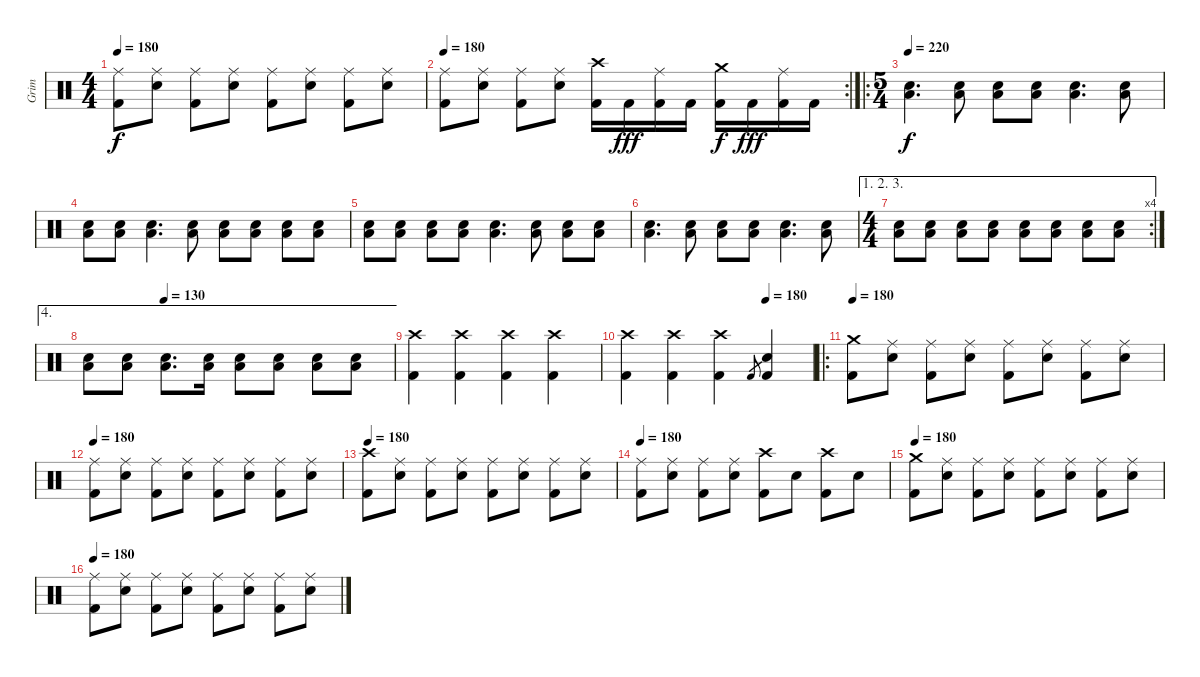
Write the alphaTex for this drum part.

\track ("Grim" "Grim") {instrument percussion}
\staff {score}
\articulation defaults
\ts (4 4)
\tempo 180
\clef neutral
\ks c
("Ride (middle)" "Kick (hit) 2").8{dy f} ("Ride (middle)" "Electric Snare (hit)").8 ("Ride (middle)" "Kick (hit) 2").8 ("Ride (middle)" "Electric Snare (hit)").8 ("Ride (middle)" "Kick (hit) 2").8 ("Ride (middle)" "Electric Snare (hit)").8 ("Ride (middle)" "Kick (hit) 2").8 ("Ride (middle)" "Electric Snare (hit)").8 |
\rc 2
\tempo 180
("Ride (middle)" "Kick (hit) 2").8 ("Ride (middle)" "Electric Snare (hit)").8 ("Ride (middle)" "Kick (hit) 2").8 ("Ride (middle)" "Electric Snare (hit)").8 ("Crash high (hit)" "Kick (hit) 2").16 "Kick (hit) 2".16{dy fff} ("Ride (middle)" "Kick (hit) 2").16 "Kick (hit) 2".16 ("Crash medium (hit)" "Kick (hit) 2").16{dy f} "Kick (hit) 2".16{dy fff} ("Ride (middle)" "Kick (hit) 2").16 "Kick (hit) 2".16 |
\ro
\ts (5 4)
\tempo 220
("Electric Snare (hit)" "Low Tom (hit)").4{d dy f} ("Electric Snare (hit)" "Low Tom (hit)").8 ("Electric Snare (hit)" "Low Tom (hit)").8 ("Electric Snare (hit)" "Low Tom (hit)").8 ("Electric Snare (hit)" "Low Tom (hit)").4{d} ("Electric Snare (hit)" "Low Tom (hit)").8 |
("Electric Snare (hit)" "Low Tom (hit)").8 ("Electric Snare (hit)" "Low Tom (hit)").8 ("Electric Snare (hit)" "Low Tom (hit)").4{d} ("Electric Snare (hit)" "Low Tom (hit)").8 ("Electric Snare (hit)" "Low Tom (hit)").8 ("Electric Snare (hit)" "Low Tom (hit)").8 ("Electric Snare (hit)" "Low Tom (hit)").8 ("Electric Snare (hit)" "Low Tom (hit)").8 |
("Electric Snare (hit)" "Low Tom (hit)").8 ("Electric Snare (hit)" "Low Tom (hit)").8 ("Electric Snare (hit)" "Low Tom (hit)").8 ("Electric Snare (hit)" "Low Tom (hit)").8 ("Electric Snare (hit)" "Low Tom (hit)").4{d} ("Electric Snare (hit)" "Low Tom (hit)").8 ("Electric Snare (hit)" "Low Tom (hit)").8 ("Electric Snare (hit)" "Low Tom (hit)").8 |
("Electric Snare (hit)" "Low Tom (hit)").4{d} ("Electric Snare (hit)" "Low Tom (hit)").8 ("Electric Snare (hit)" "Low Tom (hit)").8 ("Electric Snare (hit)" "Low Tom (hit)").8 ("Electric Snare (hit)" "Low Tom (hit)").4{d} ("Electric Snare (hit)" "Low Tom (hit)").8 |
\ae (1 2 3)
\rc 4
\ts (4 4)
("Electric Snare (hit)" "Low Tom (hit)").8 ("Electric Snare (hit)" "Low Tom (hit)").8 ("Electric Snare (hit)" "Low Tom (hit)").8 ("Electric Snare (hit)" "Low Tom (hit)").8 ("Electric Snare (hit)" "Low Tom (hit)").8 ("Electric Snare (hit)" "Low Tom (hit)").8 ("Electric Snare (hit)" "Low Tom (hit)").8 ("Electric Snare (hit)" "Low Tom (hit)").8 |
\ae 4
\tempo (130 0.25)
("Electric Snare (hit)" "Low Tom (hit)").8 ("Electric Snare (hit)" "Low Tom (hit)").8 ("Electric Snare (hit)" "Low Tom (hit)").8{d} ("Electric Snare (hit)" "Low Tom (hit)").16 ("Electric Snare (hit)" "Low Tom (hit)").8 ("Electric Snare (hit)" "Low Tom (hit)").8 ("Electric Snare (hit)" "Low Tom (hit)").8 ("Electric Snare (hit)" "Low Tom (hit)").8 |
("Crash high (hit)" "Kick (hit) 2").4 ("Crash high (hit)" "Kick (hit) 2").4 ("Crash high (hit)" "Kick (hit) 2").4 ("Crash high (hit)" "Kick (hit) 2").4 |
\tempo (180 0.75)
("Crash high (hit)" "Kick (hit) 2").4 ("Crash high (hit)" "Kick (hit) 2").4 ("Crash high (hit)" "Kick (hit) 2").4 "Kick (hit) 2".8{gr} ("Electric Snare (hit)" "Kick (hit) 2").4 |
\ro
\tempo 180
("Crash medium (hit)" "Kick (hit) 2").8 ("Ride (middle)" "Electric Snare (hit)").8 ("Ride (middle)" "Kick (hit) 2").8 ("Ride (middle)" "Electric Snare (hit)").8 ("Ride (middle)" "Kick (hit) 2").8 ("Ride (middle)" "Electric Snare (hit)").8 ("Ride (middle)" "Kick (hit) 2").8 ("Ride (middle)" "Electric Snare (hit)").8 |
\tempo 180
("Ride (middle)" "Kick (hit) 2").8 ("Ride (middle)" "Electric Snare (hit)").8 ("Ride (middle)" "Kick (hit) 2").8 ("Ride (middle)" "Electric Snare (hit)").8 ("Ride (middle)" "Kick (hit) 2").8 ("Ride (middle)" "Electric Snare (hit)").8 ("Ride (middle)" "Kick (hit) 2").8 ("Ride (middle)" "Electric Snare (hit)").8 |
\tempo 180
("Crash high (hit)" "Kick (hit) 2").8 ("Ride (middle)" "Electric Snare (hit)").8 ("Ride (middle)" "Kick (hit) 2").8 ("Ride (middle)" "Electric Snare (hit)").8 ("Ride (middle)" "Kick (hit) 2").8 ("Ride (middle)" "Electric Snare (hit)").8 ("Ride (middle)" "Kick (hit) 2").8 ("Ride (middle)" "Electric Snare (hit)").8 |
\tempo 180
("Ride (middle)" "Kick (hit) 2").8 ("Ride (middle)" "Electric Snare (hit)").8 ("Ride (middle)" "Kick (hit) 2").8 ("Ride (middle)" "Electric Snare (hit)").8 ("Crash high (hit)" "Kick (hit) 2").8 "Electric Snare (hit)".8 ("Crash high (hit)" "Kick (hit) 2").8 "Electric Snare (hit)".8 |
\tempo 180
("Crash medium (hit)" "Kick (hit) 2").8 ("Ride (middle)" "Electric Snare (hit)").8 ("Ride (middle)" "Kick (hit) 2").8 ("Ride (middle)" "Electric Snare (hit)").8 ("Ride (middle)" "Kick (hit) 2").8 ("Ride (middle)" "Electric Snare (hit)").8 ("Ride (middle)" "Kick (hit) 2").8 ("Ride (middle)" "Electric Snare (hit)").8 |
\tempo 180
("Ride (middle)" "Kick (hit) 2").8 ("Ride (middle)" "Electric Snare (hit)").8 ("Ride (middle)" "Kick (hit) 2").8 ("Ride (middle)" "Electric Snare (hit)").8 ("Ride (middle)" "Kick (hit) 2").8 ("Ride (middle)" "Electric Snare (hit)").8 ("Ride (middle)" "Kick (hit) 2").8 ("Ride (middle)" "Electric Snare (hit)").8
